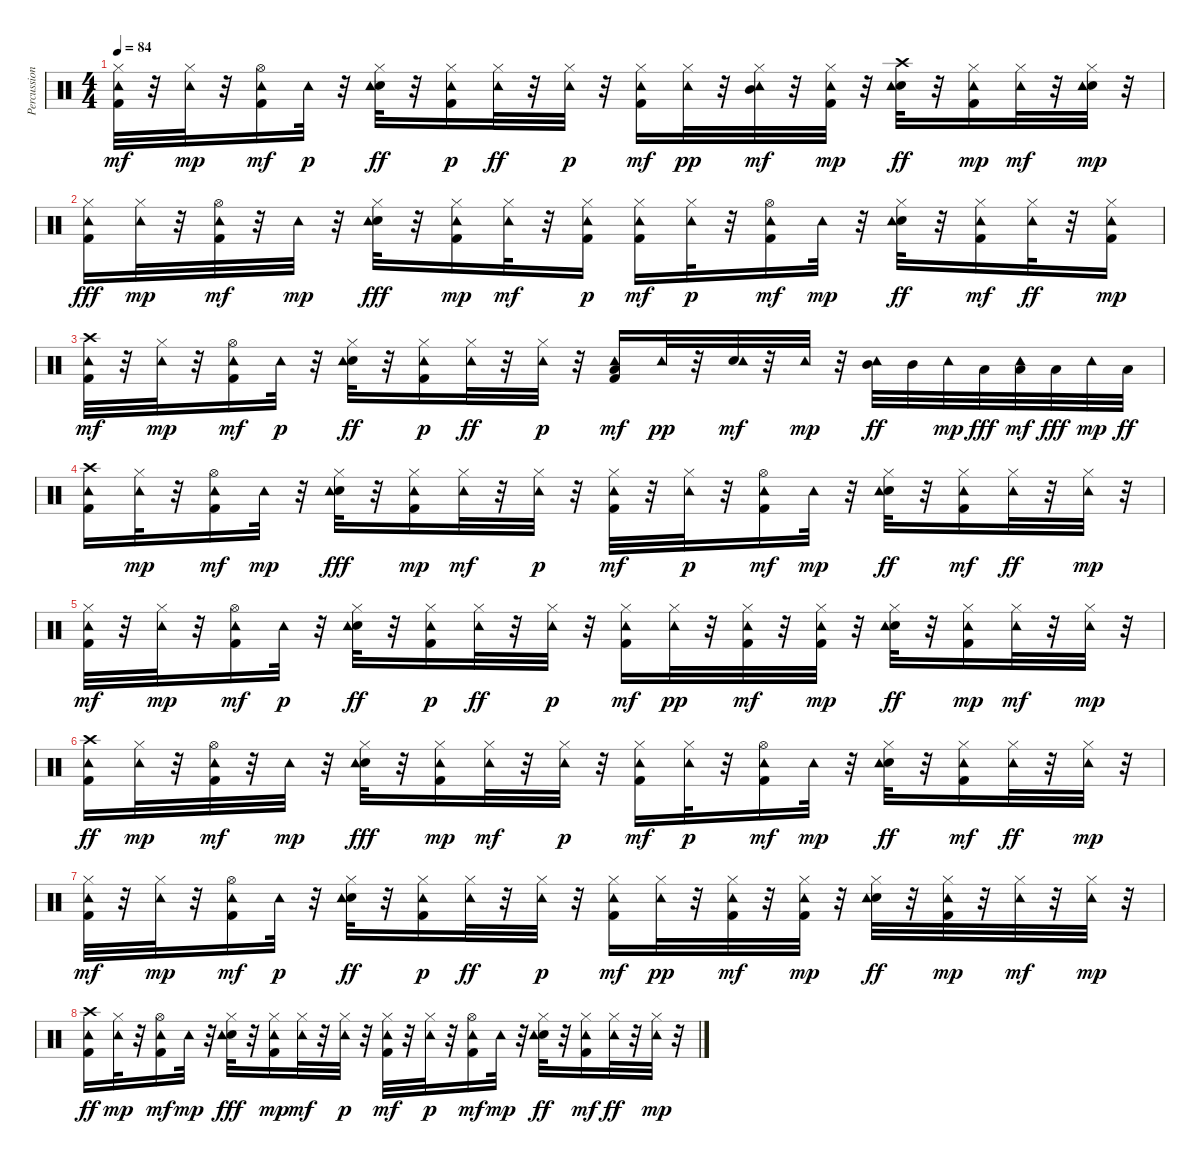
\track ("Percussions" "Percussion") {instrument percussion}
\staff {score}
\articulation defaults
\ts (4 4)
\tempo 84
\clef neutral
\ks c
("Hi-Hat (closed)" "Kick (hit) 2" "Tambourine (hit)").32{dy mf} r.32 ("Hi-Hat (closed)" "Tambourine (hit)").32{dy mp} r.32 ("Hi-Hat (open)" "Kick (hit) 2" "Tambourine (hit)").16{dy mf} "Tambourine (hit)".32{dy p} r.32 ("Hi-Hat (closed)" "Snare (hit) 2" "Tambourine (hit)").32{dy ff} r.32 ("Kick (hit) 2" "Hi-Hat (closed)" "Tambourine (hit)").16{dy p} ("Hi-Hat (closed)" "Tambourine (hit)").32{dy ff} r.32 ("Hi-Hat (closed)" "Tambourine (hit)").32{dy p} r.32 ("Kick (hit) 2" "Hi-Hat (closed)" "Tambourine (hit)").16{dy mf} ("Hi-Hat (closed)" "Tambourine (hit)").32{dy pp} r.32 ("Mid Tom (hit)" "Hi-Hat (closed)" "Tambourine (hit)").32{dy mf} r.32 ("Hi-Hat (closed)" "Kick (hit) 2" "Tambourine (hit)").32{dy mp} r.32 ("Crash high (hit)" "Snare (hit) 2" "Tambourine (hit)").32{dy ff} r.32 ("Kick (hit) 2" "Hi-Hat (closed)" "Tambourine (hit)").16{dy mp} ("Hi-Hat (closed)" "Tambourine (hit)").32{dy mf} r.32 ("Snare (hit) 2" "Hi-Hat (closed)" "Tambourine (hit)").32{dy mp} r.32 |
("Kick (hit) 2" "Hi-Hat (closed)" "Tambourine (hit)").16{dy fff} ("Hi-Hat (closed)" "Tambourine (hit)").32{dy mp} r.32 ("Hi-Hat (open)" "Kick (hit) 2" "Tambourine (hit)").32{dy mf} r.32 "Tambourine (hit)".32{dy mp} r.32 ("Snare (hit) 2" "Hi-Hat (closed)" "Tambourine (hit)").32{dy fff} r.32 ("Kick (hit) 2" "Hi-Hat (closed)" "Tambourine (hit)").16{dy mp} ("Hi-Hat (closed)" "Tambourine (hit)").32{dy mf} r.32 ("Kick (hit) 2" "Hi-Hat (closed)" "Tambourine (hit)").16{dy p} ("Kick (hit) 2" "Hi-Hat (closed)" "Tambourine (hit)").16{dy mf} ("Hi-Hat (closed)" "Tambourine (hit)").32{dy p} r.32 ("Hi-Hat (open)" "Kick (hit) 2" "Tambourine (hit)").16{dy mf} "Tambourine (hit)".32{dy mp} r.32 ("Hi-Hat (closed)" "Snare (hit) 2" "Tambourine (hit)").32{dy ff} r.32 ("Kick (hit) 2" "Hi-Hat (closed)" "Tambourine (hit)").16{dy mf} ("Hi-Hat (closed)" "Tambourine (hit)").32{dy ff} r.32 ("Kick (hit) 2" "Hi-Hat (closed)" "Tambourine (hit)").16{dy mp} |
("Crash high (hit)" "Kick (hit) 2" "Tambourine (hit)").32{dy mf} r.32 ("Hi-Hat (closed)" "Tambourine (hit)").32{dy mp} r.32 ("Hi-Hat (open)" "Kick (hit) 2" "Tambourine (hit)").16{dy mf} "Tambourine (hit)".32{dy p} r.32 ("Hi-Hat (closed)" "Snare (hit) 2" "Tambourine (hit)").32{dy ff} r.32 ("Hi-Hat (closed)" "Kick (hit) 2" "Tambourine (hit)").16{dy p} ("Hi-Hat (closed)" "Tambourine (hit)").32{dy ff} r.32 ("Hi-Hat (closed)" "Tambourine (hit)").32{dy p} r.32 ("Low Floor Tom (hit)" "Kick (hit) 2" "Tambourine (hit)").16{dy mf} "Tambourine (hit)".32{dy pp} r.32 ("Snare (hit) 2" "Tambourine (hit)").32{dy mf} r.32 "Tambourine (hit)".32{dy mp} r.32 ("Mid Tom (hit)" "Tambourine (hit)").32{dy ff} "Mid Tom (hit)".32 "Tambourine (hit)".32{dy mp} "Low Tom (hit)".32{dy fff} ("Low Tom (hit)" "Tambourine (hit)").32{dy mf} "Low Floor Tom (hit)".32{dy fff} "Tambourine (hit)".32{dy mp} "Low Floor Tom (hit)".32{dy ff} |
("Crash high (hit)" "Kick (hit) 2" "Tambourine (hit)").16 ("Hi-Hat (closed)" "Tambourine (hit)").32{dy mp} r.32 ("Hi-Hat (open)" "Kick (hit) 2" "Tambourine (hit)").16{dy mf} "Tambourine (hit)".32{dy mp} r.32 ("Hi-Hat (closed)" "Snare (hit) 2" "Tambourine (hit)").32{dy fff} r.32 ("Hi-Hat (closed)" "Kick (hit) 2" "Tambourine (hit)").16{dy mp} ("Hi-Hat (closed)" "Tambourine (hit)").32{dy mf} r.32 ("Hi-Hat (closed)" "Tambourine (hit)").32{dy p} r.32 ("Kick (hit) 2" "Hi-Hat (closed)" "Tambourine (hit)").32{dy mf} r.32 ("Hi-Hat (closed)" "Tambourine (hit)").32{dy p} r.32 ("Hi-Hat (open)" "Kick (hit) 2" "Tambourine (hit)").16{dy mf} "Tambourine (hit)".32{dy mp} r.32 ("Hi-Hat (closed)" "Snare (hit) 2" "Tambourine (hit)").32{dy ff} r.32 ("Hi-Hat (closed)" "Kick (hit) 2" "Tambourine (hit)").16{dy mf} ("Hi-Hat (closed)" "Tambourine (hit)").32{dy ff} r.32 ("Hi-Hat (closed)" "Tambourine (hit)").32{dy mp} r.32 |
("Hi-Hat (closed)" "Kick (hit) 2" "Tambourine (hit)").32{dy mf} r.32 ("Hi-Hat (closed)" "Tambourine (hit)").32{dy mp} r.32 ("Hi-Hat (open)" "Kick (hit) 2" "Tambourine (hit)").16{dy mf} "Tambourine (hit)".32{dy p} r.32 ("Hi-Hat (closed)" "Snare (hit) 2" "Tambourine (hit)").32{dy ff} r.32 ("Kick (hit) 2" "Hi-Hat (closed)" "Tambourine (hit)").16{dy p} ("Hi-Hat (closed)" "Tambourine (hit)").32{dy ff} r.32 ("Hi-Hat (closed)" "Tambourine (hit)").32{dy p} r.32 ("Kick (hit) 2" "Hi-Hat (closed)" "Tambourine (hit)").16{dy mf} ("Hi-Hat (closed)" "Tambourine (hit)").32{dy pp} r.32 ("Hi-Hat (closed)" "Kick (hit) 2" "Tambourine (hit)").32{dy mf} r.32 ("Hi-Hat (closed)" "Kick (hit) 2" "Tambourine (hit)").32{dy mp} r.32 ("Snare (hit) 2" "Hi-Hat (closed)" "Tambourine (hit)").32{dy ff} r.32 ("Kick (hit) 2" "Hi-Hat (closed)" "Tambourine (hit)").16{dy mp} ("Hi-Hat (closed)" "Tambourine (hit)").32{dy mf} r.32 ("Hi-Hat (closed)" "Tambourine (hit)").32{dy mp} r.32 |
("Crash high (hit)" "Kick (hit) 2" "Tambourine (hit)").16{dy ff} ("Hi-Hat (closed)" "Tambourine (hit)").32{dy mp} r.32 ("Hi-Hat (open)" "Kick (hit) 2" "Tambourine (hit)").32{dy mf} r.32 "Tambourine (hit)".32{dy mp} r.32 ("Snare (hit) 2" "Hi-Hat (closed)" "Tambourine (hit)").32{dy fff} r.32 ("Kick (hit) 2" "Hi-Hat (closed)" "Tambourine (hit)").16{dy mp} ("Hi-Hat (closed)" "Tambourine (hit)").32{dy mf} r.32 ("Hi-Hat (closed)" "Tambourine (hit)").32{dy p} r.32 ("Kick (hit) 2" "Hi-Hat (closed)" "Tambourine (hit)").16{dy mf} ("Hi-Hat (closed)" "Tambourine (hit)").32{dy p} r.32 ("Hi-Hat (open)" "Kick (hit) 2" "Tambourine (hit)").16{dy mf} "Tambourine (hit)".32{dy mp} r.32 ("Hi-Hat (closed)" "Snare (hit) 2" "Tambourine (hit)").32{dy ff} r.32 ("Kick (hit) 2" "Hi-Hat (closed)" "Tambourine (hit)").16{dy mf} ("Hi-Hat (closed)" "Tambourine (hit)").32{dy ff} r.32 ("Hi-Hat (closed)" "Tambourine (hit)").32{dy mp} r.32 |
("Kick (hit) 2" "Hi-Hat (closed)" "Tambourine (hit)").32{dy mf} r.32 ("Hi-Hat (closed)" "Tambourine (hit)").32{dy mp} r.32 ("Hi-Hat (open)" "Kick (hit) 2" "Tambourine (hit)").16{dy mf} "Tambourine (hit)".32{dy p} r.32 ("Hi-Hat (closed)" "Snare (hit) 2" "Tambourine (hit)").32{dy ff} r.32 ("Hi-Hat (closed)" "Kick (hit) 2" "Tambourine (hit)").16{dy p} ("Hi-Hat (closed)" "Tambourine (hit)").32{dy ff} r.32 ("Hi-Hat (closed)" "Tambourine (hit)").32{dy p} r.32 ("Kick (hit) 2" "Hi-Hat (closed)" "Tambourine (hit)").16{dy mf} ("Hi-Hat (closed)" "Tambourine (hit)").32{dy pp} r.32 ("Kick (hit) 2" "Hi-Hat (closed)" "Tambourine (hit)").32{dy mf} r.32 ("Kick (hit) 2" "Hi-Hat (closed)" "Tambourine (hit)").32{dy mp} r.32 ("Hi-Hat (closed)" "Snare (hit) 2" "Tambourine (hit)").32{dy ff} r.32 ("Hi-Hat (closed)" "Kick (hit) 2" "Tambourine (hit)").32{dy mp} r.32 ("Hi-Hat (closed)" "Tambourine (hit)").32{dy mf} r.32 ("Hi-Hat (closed)" "Tambourine (hit)").32{dy mp} r.32 |
("Crash high (hit)" "Kick (hit) 2" "Tambourine (hit)").16{dy ff} ("Hi-Hat (closed)" "Tambourine (hit)").32{dy mp} r.32 ("Hi-Hat (open)" "Kick (hit) 2" "Tambourine (hit)").16{dy mf} "Tambourine (hit)".32{dy mp} r.32 ("Hi-Hat (closed)" "Snare (hit) 2" "Tambourine (hit)").32{dy fff} r.32 ("Hi-Hat (closed)" "Kick (hit) 2" "Tambourine (hit)").16{dy mp} ("Hi-Hat (closed)" "Tambourine (hit)").32{dy mf} r.32 ("Hi-Hat (closed)" "Tambourine (hit)").32{dy p} r.32 ("Kick (hit) 2" "Hi-Hat (closed)" "Tambourine (hit)").32{dy mf} r.32 ("Hi-Hat (closed)" "Tambourine (hit)").32{dy p} r.32 ("Hi-Hat (open)" "Kick (hit) 2" "Tambourine (hit)").16{dy mf} "Tambourine (hit)".32{dy mp} r.32 ("Hi-Hat (closed)" "Snare (hit) 2" "Tambourine (hit)").32{dy ff} r.32 ("Hi-Hat (closed)" "Kick (hit) 2" "Tambourine (hit)").16{dy mf} ("Hi-Hat (closed)" "Tambourine (hit)").32{dy ff} r.32 ("Hi-Hat (closed)" "Tambourine (hit)").32{dy mp} r.32
